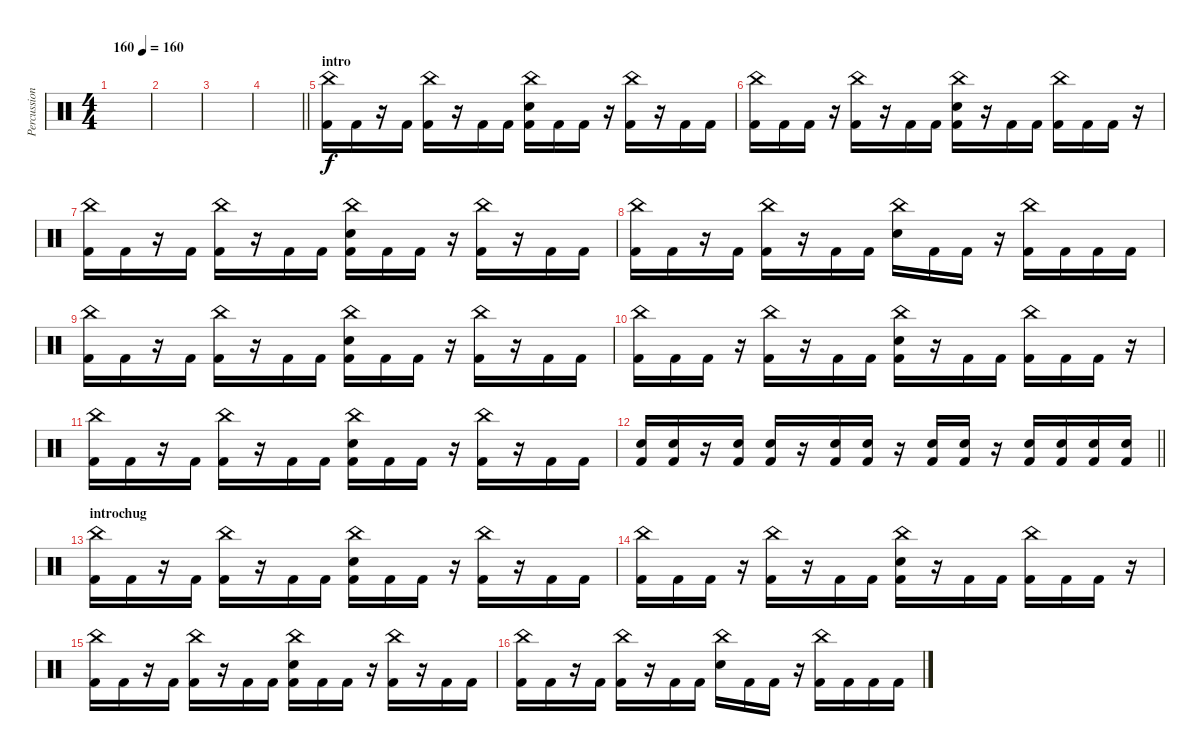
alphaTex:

\track ("Percussion" "Percussion") {instrument percussion bank 255}
\staff {score}
\articulation defaults
\ts (4 4)
\tempo (160 "160")
\clef neutral
\ks c
|
|
|
\barLineRight lightlight
|
\section ("" "intro")
("China (hit)" "Kick (hit) 2").16 "Kick (hit) 2".16 r.16 "Kick (hit) 2".16 ("China (hit)" "Kick (hit) 2").16 r.16 "Kick (hit) 2".16 "Kick (hit) 2".16 ("China (hit)" "Electric Snare (hit)" "Kick (hit) 2").16 "Kick (hit) 2".16 "Kick (hit) 2".16 r.16 ("China (hit)" "Kick (hit) 2").16 r.16 "Kick (hit) 2".16 "Kick (hit) 2".16 |
("China (hit)" "Kick (hit) 2").16 "Kick (hit) 2".16 "Kick (hit) 2".16 r.16 ("China (hit)" "Kick (hit) 2").16 r.16 "Kick (hit) 2".16 "Kick (hit) 2".16 ("China (hit)" "Electric Snare (hit)" "Kick (hit) 2").16 r.16 "Kick (hit) 2".16 "Kick (hit) 2".16 ("China (hit)" "Kick (hit) 2").16 "Kick (hit) 2".16 "Kick (hit) 2".16 r.16 |
("China (hit)" "Kick (hit) 2").16 "Kick (hit) 2".16 r.16 "Kick (hit) 2".16 ("China (hit)" "Kick (hit) 2").16 r.16 "Kick (hit) 2".16 "Kick (hit) 2".16 ("China (hit)" "Electric Snare (hit)" "Kick (hit) 2").16 "Kick (hit) 2".16 "Kick (hit) 2".16 r.16 ("China (hit)" "Kick (hit) 2").16 r.16 "Kick (hit) 2".16 "Kick (hit) 2".16 |
("China (hit)" "Kick (hit) 2").16 "Kick (hit) 2".16 r.16 "Kick (hit) 2".16 ("China (hit)" "Kick (hit) 2").16 r.16 "Kick (hit) 2".16 "Kick (hit) 2".16 ("China (hit)" "Electric Snare (hit)").16 "Kick (hit) 2".16 "Kick (hit) 2".16 r.16 ("China (hit)" "Kick (hit) 2").16 "Kick (hit) 2".16 "Kick (hit) 2".16 "Kick (hit) 2".16 |
("China (hit)" "Kick (hit) 2").16 "Kick (hit) 2".16 r.16 "Kick (hit) 2".16 ("China (hit)" "Kick (hit) 2").16 r.16 "Kick (hit) 2".16 "Kick (hit) 2".16 ("China (hit)" "Electric Snare (hit)" "Kick (hit) 2").16 "Kick (hit) 2".16 "Kick (hit) 2".16 r.16 ("China (hit)" "Kick (hit) 2").16 r.16 "Kick (hit) 2".16 "Kick (hit) 2".16 |
("China (hit)" "Kick (hit) 2").16 "Kick (hit) 2".16 "Kick (hit) 2".16 r.16 ("China (hit)" "Kick (hit) 2").16 r.16 "Kick (hit) 2".16 "Kick (hit) 2".16 ("China (hit)" "Electric Snare (hit)" "Kick (hit) 2").16 r.16 "Kick (hit) 2".16 "Kick (hit) 2".16 ("China (hit)" "Kick (hit) 2").16 "Kick (hit) 2".16 "Kick (hit) 2".16 r.16 |
("China (hit)" "Kick (hit) 2").16 "Kick (hit) 2".16 r.16 "Kick (hit) 2".16 ("China (hit)" "Kick (hit) 2").16 r.16 "Kick (hit) 2".16 "Kick (hit) 2".16 ("China (hit)" "Electric Snare (hit)" "Kick (hit) 2").16 "Kick (hit) 2".16 "Kick (hit) 2".16 r.16 ("China (hit)" "Kick (hit) 2").16 r.16 "Kick (hit) 2".16 "Kick (hit) 2".16 |
\barLineRight lightlight
("Electric Snare (hit)" "Kick (hit) 2").16 ("Electric Snare (hit)" "Kick (hit) 2").16 r.16 ("Electric Snare (hit)" "Kick (hit) 2").16 ("Electric Snare (hit)" "Kick (hit) 2").16 r.16 ("Electric Snare (hit)" "Kick (hit) 2").16 ("Electric Snare (hit)" "Kick (hit) 2").16 r.16 ("Electric Snare (hit)" "Kick (hit) 2").16 ("Electric Snare (hit)" "Kick (hit) 2").16 r.16 ("Electric Snare (hit)" "Kick (hit) 2").16 ("Electric Snare (hit)" "Kick (hit) 2").16 ("Electric Snare (hit)" "Kick (hit) 2").16 ("Electric Snare (hit)" "Kick (hit) 2").16 |
\section ("" "introchug")
("China (hit)" "Kick (hit) 2").16 "Kick (hit) 2".16 r.16 "Kick (hit) 2".16 ("China (hit)" "Kick (hit) 2").16 r.16 "Kick (hit) 2".16 "Kick (hit) 2".16 ("China (hit)" "Electric Snare (hit)" "Kick (hit) 2").16 "Kick (hit) 2".16 "Kick (hit) 2".16 r.16 ("China (hit)" "Kick (hit) 2").16 r.16 "Kick (hit) 2".16 "Kick (hit) 2".16 |
("China (hit)" "Kick (hit) 2").16 "Kick (hit) 2".16 "Kick (hit) 2".16 r.16 ("China (hit)" "Kick (hit) 2").16 r.16 "Kick (hit) 2".16 "Kick (hit) 2".16 ("China (hit)" "Electric Snare (hit)" "Kick (hit) 2").16 r.16 "Kick (hit) 2".16 "Kick (hit) 2".16 ("China (hit)" "Kick (hit) 2").16 "Kick (hit) 2".16 "Kick (hit) 2".16 r.16 |
("China (hit)" "Kick (hit) 2").16 "Kick (hit) 2".16 r.16 "Kick (hit) 2".16 ("China (hit)" "Kick (hit) 2").16 r.16 "Kick (hit) 2".16 "Kick (hit) 2".16 ("China (hit)" "Electric Snare (hit)" "Kick (hit) 2").16 "Kick (hit) 2".16 "Kick (hit) 2".16 r.16 ("China (hit)" "Kick (hit) 2").16 r.16 "Kick (hit) 2".16 "Kick (hit) 2".16 |
("China (hit)" "Kick (hit) 2").16 "Kick (hit) 2".16 r.16 "Kick (hit) 2".16 ("China (hit)" "Kick (hit) 2").16 r.16 "Kick (hit) 2".16 "Kick (hit) 2".16 ("China (hit)" "Electric Snare (hit)").16 "Kick (hit) 2".16 "Kick (hit) 2".16 r.16 ("China (hit)" "Kick (hit) 2").16 "Kick (hit) 2".16 "Kick (hit) 2".16 "Kick (hit) 2".16
